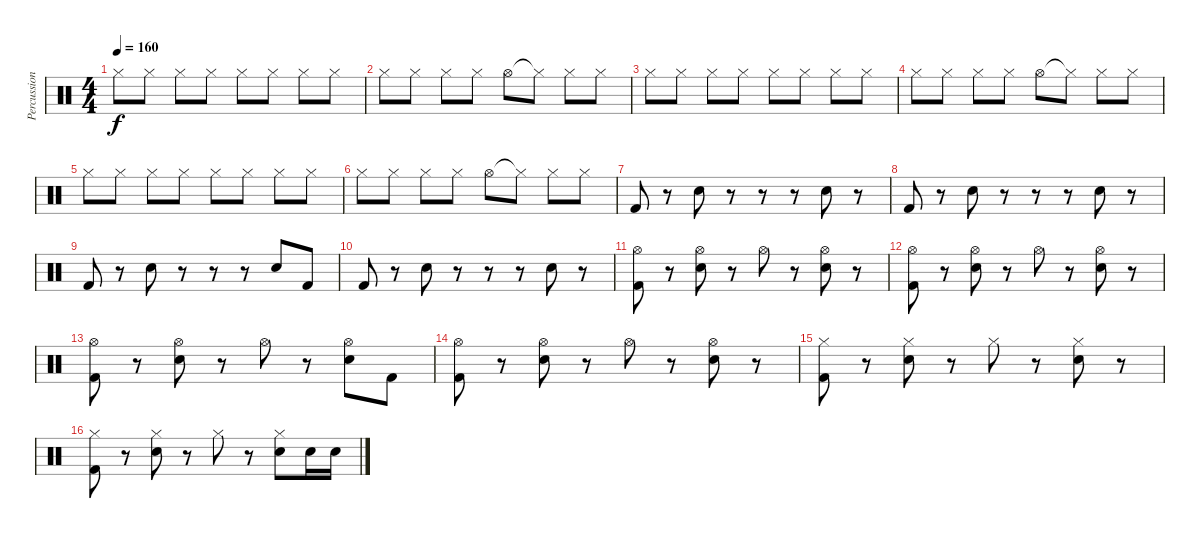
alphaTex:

\track ("Percussion" "Percussion") {instrument percussion}
\staff {score}
\articulation defaults
\ts (4 4)
\tempo 160
\clef neutral
\ks c "Hi-Hat (closed)".8{dy f} "Hi-Hat (closed)".8 "Hi-Hat (closed)".8 "Hi-Hat (closed)".8 "Hi-Hat (closed)".8 "Hi-Hat (closed)".8 "Hi-Hat (closed)".8 "Hi-Hat (closed)".8
|
"Hi-Hat (closed)".8 "Hi-Hat (closed)".8 "Hi-Hat (closed)".8 "Hi-Hat (closed)".8 "Hi-Hat (open)".8 "Hi-Hat (closed)"{t}.8 "Hi-Hat (closed)".8 "Hi-Hat (closed)".8 |
"Hi-Hat (closed)".8 "Hi-Hat (closed)".8 "Hi-Hat (closed)".8 "Hi-Hat (closed)".8 "Hi-Hat (closed)".8 "Hi-Hat (closed)".8 "Hi-Hat (closed)".8 "Hi-Hat (closed)".8 |
"Hi-Hat (closed)".8 "Hi-Hat (closed)".8 "Hi-Hat (closed)".8 "Hi-Hat (closed)".8 "Hi-Hat (open)".8 "Hi-Hat (closed)"{t}.8 "Hi-Hat (closed)".8 "Hi-Hat (closed)".8 |
"Hi-Hat (closed)".8 "Hi-Hat (closed)".8 "Hi-Hat (closed)".8 "Hi-Hat (closed)".8 "Hi-Hat (closed)".8 "Hi-Hat (closed)".8 "Hi-Hat (closed)".8 "Hi-Hat (closed)".8 |
"Hi-Hat (closed)".8 "Hi-Hat (closed)".8 "Hi-Hat (closed)".8 "Hi-Hat (closed)".8 "Hi-Hat (open)".8 "Hi-Hat (closed)"{t}.8 "Hi-Hat (closed)".8 "Hi-Hat (closed)".8 |
"Kick (hit) 2".8 r.8 "Snare (hit) 2".8 r.8 r.8 r.8 "Snare (hit) 2".8 r.8 |
"Kick (hit) 2".8 r.8 "Snare (hit) 2".8 r.8 r.8 r.8 "Snare (hit) 2".8 r.8 |
"Kick (hit) 2".8 r.8 "Snare (hit) 2".8 r.8 r.8 r.8 "Snare (hit) 2".8 "Kick (hit) 2".8 |
"Kick (hit) 2".8 r.8 "Snare (hit) 2".8 r.8 r.8 r.8 "Snare (hit) 2".8 r.8 |
("Kick (hit) 2" "Hi-Hat (open)").8 r.8 ("Snare (hit) 2" "Hi-Hat (open)").8 r.8 "Hi-Hat (open)".8 r.8 ("Snare (hit) 2" "Hi-Hat (open)").8 r.8 |
("Kick (hit) 2" "Hi-Hat (open)").8 r.8 ("Snare (hit) 2" "Hi-Hat (open)").8 r.8 "Hi-Hat (open)".8 r.8 ("Snare (hit) 2" "Hi-Hat (open)").8 r.8 |
("Kick (hit) 2" "Hi-Hat (open)").8 r.8 ("Snare (hit) 2" "Hi-Hat (open)").8 r.8 "Hi-Hat (open)".8 r.8 ("Snare (hit) 2" "Hi-Hat (open)").8 "Kick (hit) 2".8 |
("Kick (hit) 2" "Hi-Hat (open)").8 r.8 ("Snare (hit) 2" "Hi-Hat (open)").8 r.8 "Hi-Hat (open)".8 r.8 ("Snare (hit) 2" "Hi-Hat (open)").8 r.8 |
("Kick (hit) 2" "Hi-Hat (closed)").8 r.8 ("Snare (hit) 2" "Hi-Hat (closed)").8 r.8 "Hi-Hat (closed)".8 r.8 ("Snare (hit) 2" "Hi-Hat (closed)").8 r.8 |
("Kick (hit) 2" "Hi-Hat (closed)").8 r.8 ("Snare (hit) 2" "Hi-Hat (closed)").8 r.8 "Hi-Hat (closed)".8 r.8 ("Snare (hit) 2" "Hi-Hat (closed)").8 "Snare (hit) 2".16 "Snare (hit) 2".16
